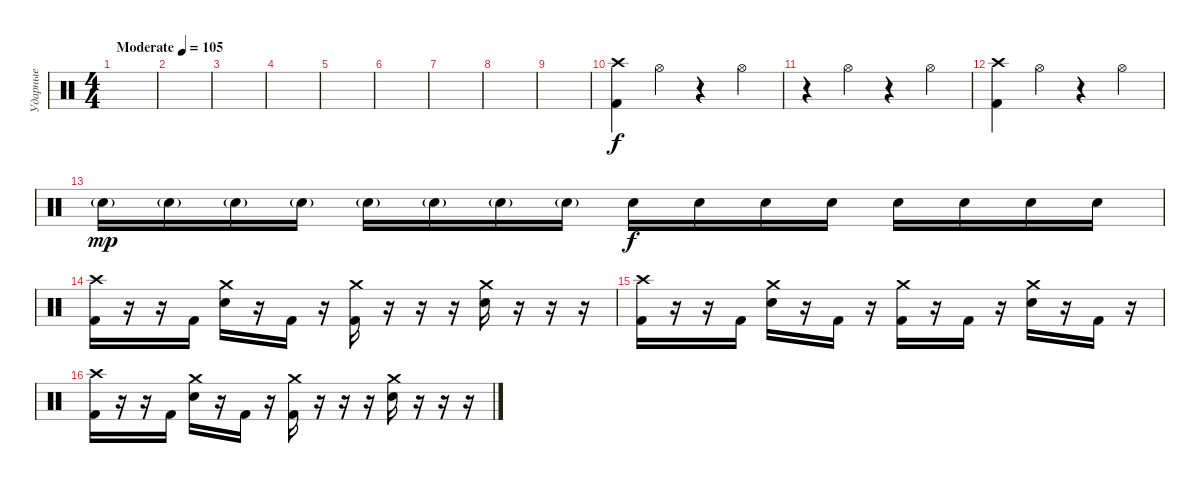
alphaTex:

\track ("Ударные" "Ударные") {instrument percussion}
\staff {score}
\articulation defaults
\ts (4 4)
\tempo (105 "Moderate")
\clef neutral
\ks c
|
|
|
|
|
|
|
|
|
("Crash high (hit)" "Kick (hit) 2").4 "Hi-Hat (open)".4 r.4 "Hi-Hat (open)".4 |
r.4 "Hi-Hat (open)".4 r.4 "Hi-Hat (open)".4 |
("Crash high (hit)" "Kick (hit) 2").4 "Hi-Hat (open)".4 r.4 "Hi-Hat (open)".4 |
"Electric Snare (hit)"{g}.16{dy mp} "Electric Snare (hit)"{g}.16 "Electric Snare (hit)"{g}.16 "Electric Snare (hit)"{g}.16 "Electric Snare (hit)"{g}.16 "Electric Snare (hit)"{g}.16 "Electric Snare (hit)"{g}.16 "Electric Snare (hit)"{g}.16 "Electric Snare (hit)".16{dy f} "Electric Snare (hit)".16 "Electric Snare (hit)".16 "Electric Snare (hit)".16 "Electric Snare (hit)".16 "Electric Snare (hit)".16 "Electric Snare (hit)".16 "Electric Snare (hit)".16 |
("Crash high (hit)" "Kick (hit) 2").16 r.16 r.16 "Kick (hit) 2".16 ("Crash medium (hit)" "Electric Snare (hit)").16 r.16 "Kick (hit) 2".16 r.16 ("Crash medium (hit)" "Kick (hit) 2").16 r.16 r.16 r.16 ("Crash medium (hit)" "Electric Snare (hit)").16 r.16 r.16 r.16 |
("Crash high (hit)" "Kick (hit) 2").16 r.16 r.16 "Kick (hit) 2".16 ("Crash medium (hit)" "Electric Snare (hit)").16 r.16 "Kick (hit) 2".16 r.16 ("Crash medium (hit)" "Kick (hit) 2").16 r.16 "Kick (hit) 2".16 r.16 ("Crash medium (hit)" "Electric Snare (hit)").16 r.16 "Kick (hit) 2".16 r.16 |
("Crash high (hit)" "Kick (hit) 2").16 r.16 r.16 "Kick (hit) 2".16 ("Crash medium (hit)" "Electric Snare (hit)").16 r.16 "Kick (hit) 2".16 r.16 ("Crash medium (hit)" "Kick (hit) 2").16 r.16 r.16 r.16 ("Crash medium (hit)" "Electric Snare (hit)").16 r.16 r.16 r.16
